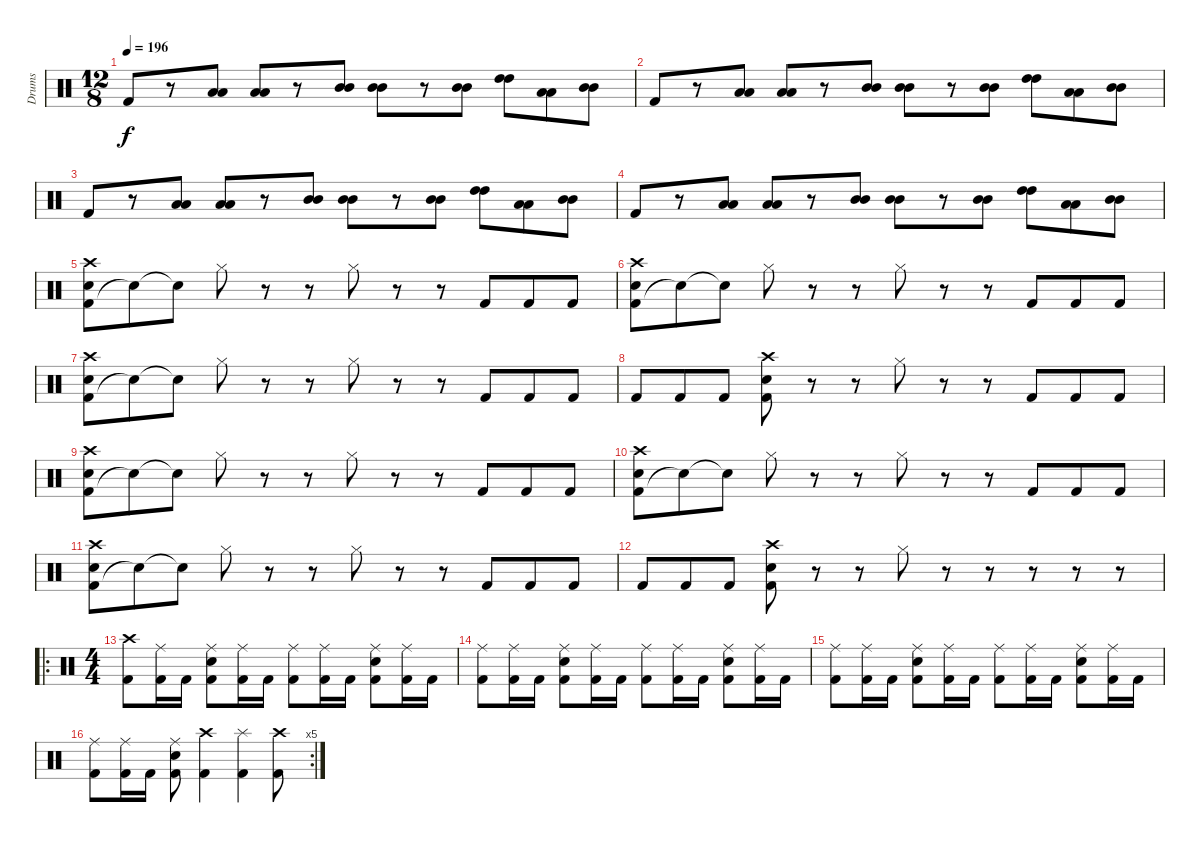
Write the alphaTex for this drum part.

\track ("Drums" "Drums") {instrument percussion}
\staff {score}
\articulation defaults
\ts (12 8)
\tempo 196
\clef neutral
\ks c "Kick (hit) 2".8{dy f}
r.8 ("Low Tom (hit)" "Low Tom (hit)").8 ("Low Tom (hit)" "Low Tom (hit)").8 r.8 ("Mid Tom (hit)" "Mid Tom (hit)").8 ("Mid Tom (hit)" "Mid Tom (hit)").8 r.8 ("Mid Tom (hit)" "Mid Tom (hit)").8 ("High Tom (hit)" "High Tom (hit)").8 ("Low Tom (hit)" "Low Tom (hit)").8 ("Mid Tom (hit)" "Mid Tom (hit)").8 |
"Kick (hit) 2".8 r.8 ("Low Tom (hit)" "Low Tom (hit)").8 ("Low Tom (hit)" "Low Tom (hit)").8 r.8 ("Mid Tom (hit)" "Mid Tom (hit)").8 ("Mid Tom (hit)" "Mid Tom (hit)").8 r.8 ("Mid Tom (hit)" "Mid Tom (hit)").8 ("High Tom (hit)" "High Tom (hit)").8 ("Low Tom (hit)" "Low Tom (hit)").8 ("Mid Tom (hit)" "Mid Tom (hit)").8 |
"Kick (hit) 2".8 r.8 ("Low Tom (hit)" "Low Tom (hit)").8 ("Low Tom (hit)" "Low Tom (hit)").8 r.8 ("Mid Tom (hit)" "Mid Tom (hit)").8 ("Mid Tom (hit)" "Mid Tom (hit)").8 r.8 ("Mid Tom (hit)" "Mid Tom (hit)").8 ("High Tom (hit)" "High Tom (hit)").8 ("Low Tom (hit)" "Low Tom (hit)").8 ("Mid Tom (hit)" "Mid Tom (hit)").8 |
"Kick (hit) 2".8 r.8 ("Low Tom (hit)" "Low Tom (hit)").8 ("Low Tom (hit)" "Low Tom (hit)").8 r.8 ("Mid Tom (hit)" "Mid Tom (hit)").8 ("Mid Tom (hit)" "Mid Tom (hit)").8 r.8 ("Mid Tom (hit)" "Mid Tom (hit)").8 ("High Tom (hit)" "High Tom (hit)").8 ("Low Tom (hit)" "Low Tom (hit)").8 ("Mid Tom (hit)" "Mid Tom (hit)").8 |
("Kick (hit) 2" "Snare (hit) 2" "Crash high (hit)").8 "Snare (hit)"{t}.8 "Snare (hit)"{t}.8 "Hi-Hat (closed)".8 r.8 r.8 "Hi-Hat (closed)".8 r.8 r.8 "Kick (hit) 2".8 "Kick (hit) 2".8 "Kick (hit) 2".8 |
("Kick (hit) 2" "Snare (hit) 2" "Crash high (hit)").8 "Snare (hit)"{t}.8 "Snare (hit)"{t}.8 "Hi-Hat (closed)".8 r.8 r.8 "Hi-Hat (closed)".8 r.8 r.8 "Kick (hit) 2".8 "Kick (hit) 2".8 "Kick (hit) 2".8 |
("Kick (hit) 2" "Snare (hit) 2" "Crash high (hit)").8 "Snare (hit)"{t}.8 "Snare (hit)"{t}.8 "Hi-Hat (closed)".8 r.8 r.8 "Hi-Hat (closed)".8 r.8 r.8 "Kick (hit) 2".8 "Kick (hit) 2".8 "Kick (hit) 2".8 |
"Kick (hit) 2".8 "Kick (hit) 2".8 "Kick (hit) 2".8 ("Kick (hit) 2" "Snare (hit) 2" "Crash high (hit)").8 r.8 r.8 "Hi-Hat (closed)".8 r.8 r.8 "Kick (hit) 2".8 "Kick (hit) 2".8 "Kick (hit) 2".8 |
("Kick (hit) 2" "Snare (hit) 2" "Crash high (hit)").8 "Snare (hit)"{t}.8 "Snare (hit)"{t}.8 "Hi-Hat (closed)".8 r.8 r.8 "Hi-Hat (closed)".8 r.8 r.8 "Kick (hit) 2".8 "Kick (hit) 2".8 "Kick (hit) 2".8 |
("Kick (hit) 2" "Snare (hit) 2" "Crash high (hit)").8 "Snare (hit)"{t}.8 "Snare (hit)"{t}.8 "Hi-Hat (closed)".8 r.8 r.8 "Hi-Hat (closed)".8 r.8 r.8 "Kick (hit) 2".8 "Kick (hit) 2".8 "Kick (hit) 2".8 |
("Kick (hit) 2" "Snare (hit) 2" "Crash high (hit)").8 "Snare (hit)"{t}.8 "Snare (hit)"{t}.8 "Hi-Hat (closed)".8 r.8 r.8 "Hi-Hat (closed)".8 r.8 r.8 "Kick (hit) 2".8 "Kick (hit) 2".8 "Kick (hit) 2".8 |
"Kick (hit) 2".8 "Kick (hit) 2".8 "Kick (hit) 2".8 ("Kick (hit) 2" "Snare (hit) 2" "Crash high (hit)").8 r.8 r.8 "Hi-Hat (closed)".8 r.8 r.8 r.8 r.8 r.8 |
\ro
\ts (4 4)
("Kick (hit) 2" "Crash high (hit)").8 ("Kick (hit) 2" "Ride (middle)").16 "Kick (hit) 2".16 ("Kick (hit) 2" "Snare (hit) 2" "Ride (middle)").8 ("Kick (hit) 2" "Ride (middle)").16 "Kick (hit) 2".16 ("Kick (hit) 2" "Ride (middle)").8 ("Kick (hit) 2" "Ride (middle)").16 "Kick (hit) 2".16 ("Kick (hit) 2" "Snare (hit) 2" "Ride (middle)").8 ("Kick (hit) 2" "Ride (middle)").16 "Kick (hit) 2".16 |
("Kick (hit) 2" "Ride (middle)").8 ("Kick (hit) 2" "Ride (middle)").16 "Kick (hit) 2".16 ("Kick (hit) 2" "Snare (hit) 2" "Ride (middle)").8 ("Kick (hit) 2" "Ride (middle)").16 "Kick (hit) 2".16 ("Kick (hit) 2" "Ride (middle)").8 ("Kick (hit) 2" "Ride (middle)").16 "Kick (hit) 2".16 ("Kick (hit) 2" "Snare (hit) 2" "Ride (middle)").8 ("Kick (hit) 2" "Ride (middle)").16 "Kick (hit) 2".16 |
("Kick (hit) 2" "Ride (middle)").8 ("Kick (hit) 2" "Ride (middle)").16 "Kick (hit) 2".16 ("Kick (hit) 2" "Snare (hit) 2" "Ride (middle)").8 ("Kick (hit) 2" "Ride (middle)").16 "Kick (hit) 2".16 ("Kick (hit) 2" "Ride (middle)").8 ("Kick (hit) 2" "Ride (middle)").16 "Kick (hit) 2".16 ("Kick (hit) 2" "Snare (hit) 2" "Ride (middle)").8 ("Kick (hit) 2" "Ride (middle)").16 "Kick (hit) 2".16 |
\rc 5
("Kick (hit) 2" "Ride (middle)").8 ("Kick (hit) 2" "Ride (middle)").16 "Kick (hit) 2".16 ("Kick (hit) 2" "Snare (hit) 2" "Ride (middle)").8 ("Kick (hit) 2" "Crash high (hit)").4 ("Kick (hit) 2" "Splash (hit)").4 ("Kick (hit) 2" "Crash high (hit)").8
